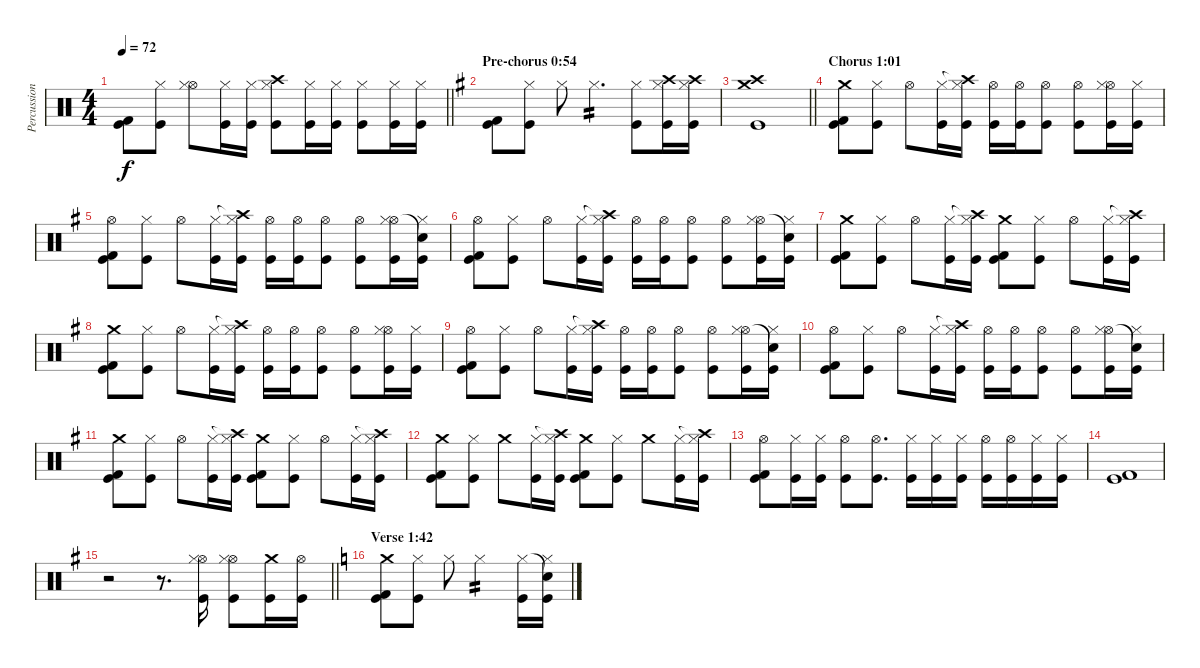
\track ("Percussion" "Percussion") {instrument percussion}
\staff {score}
\articulation defaults
\ts (4 4)
\tempo 72
\clef neutral
\barLineRight lightlight
\ks c
("Kick (hit) 2" "Kick (hit)").8{dy f} ("Hi-Hat (closed)" "Kick (hit)").8 ("Hi-Hat (open)" "Hi-Hat (closed)").8 ("Hi-Hat (closed)" "Kick (hit)").16 ("Hi-Hat (closed)" "Kick (hit)").16 ("Crash high (hit)" "Hi-Hat (closed)" "Kick (hit)").8 ("Hi-Hat (closed)" "Kick (hit)").16 ("Hi-Hat (closed)" "Kick (hit)").16 ("Hi-Hat (closed)" "Kick (hit)").8 ("Hi-Hat (closed)" "Kick (hit)").16 ("Hi-Hat (closed)" "Kick (hit)").16 |
\section ("" "Pre-chorus 0:54")
\ks g
("Kick (hit) 2" "Kick (hit)").8 ("Hi-Hat (closed)" "Kick (hit)").8 "Hi-Hat (closed)".8 "Hi-Hat (closed)".4{d tp 2} ("Hi-Hat (closed)" "Kick (hit)").8 ("Crash high (hit)" "Hi-Hat (closed)" "Kick (hit)").16 ("Crash high (hit)" "Hi-Hat (closed)" "Kick (hit)").16 |
\barLineRight lightlight
("Crash medium (hit)" "Crash high (hit)" "Kick (hit)").1 |
\section ("" "Chorus 1:01")
("Crash medium (hit)" "Kick (hit) 2" "Kick (hit)").8 ("Hi-Hat (closed)" "Kick (hit)").8 "Hi-Hat (open)".8 ("Hi-Hat (closed)" "Kick (hit)").16 ("Crash high (hit)"{t} "Hi-Hat (closed)" "Kick (hit)").16 ("Hi-Hat (open)" "Kick (hit)").16 ("Hi-Hat (open)" "Kick (hit)").16 ("Hi-Hat (open)" "Kick (hit)").8 ("Hi-Hat (open)" "Kick (hit)").8 ("Hi-Hat (open)" "Hi-Hat (closed)" "Kick (hit)").16 ("Hi-Hat (closed)" "Kick (hit)").16 |
("Hi-Hat (open)" "Kick (hit) 2" "Kick (hit)").8 ("Hi-Hat (closed)" "Kick (hit)").8 "Hi-Hat (open)".8 ("Hi-Hat (closed)" "Kick (hit)").16 ("Crash high (hit)"{t} "Hi-Hat (closed)" "Kick (hit)").16 ("Hi-Hat (open)" "Kick (hit)").16 ("Hi-Hat (open)" "Kick (hit)").16 ("Hi-Hat (open)" "Kick (hit)").8 ("Hi-Hat (open)" "Kick (hit)").8 ("Hi-Hat (open)" "Hi-Hat (closed)" "Kick (hit)").16 ("Snare (hit)"{t} "Hi-Hat (closed)" "Kick (hit)").16 |
("Hi-Hat (open)" "Kick (hit) 2" "Kick (hit)").8 ("Hi-Hat (closed)" "Kick (hit)").8 "Hi-Hat (open)".8 ("Hi-Hat (closed)" "Kick (hit)").16 ("Crash high (hit)"{t} "Hi-Hat (closed)" "Kick (hit)").16 ("Hi-Hat (open)" "Kick (hit)").16 ("Hi-Hat (open)" "Kick (hit)").16 ("Hi-Hat (open)" "Kick (hit)").8 ("Hi-Hat (open)" "Kick (hit)").8 ("Hi-Hat (open)" "Hi-Hat (closed)" "Kick (hit)").16 ("Snare (hit)"{t} "Hi-Hat (closed)" "Kick (hit)").16 |
("Crash medium (hit)" "Kick (hit) 2" "Kick (hit)").8 ("Hi-Hat (closed)" "Kick (hit)").8 "Hi-Hat (open)".8 ("Hi-Hat (closed)" "Kick (hit)").16 ("Crash high (hit)"{t} "Hi-Hat (closed)" "Kick (hit)").16 ("Crash medium (hit)" "Kick (hit) 2" "Kick (hit)").8 ("Hi-Hat (closed)" "Kick (hit)").8 "Hi-Hat (open)".8 ("Hi-Hat (closed)" "Kick (hit)").16 ("Crash high (hit)"{t} "Hi-Hat (closed)" "Kick (hit)").16 |
("Crash medium (hit)" "Kick (hit) 2" "Kick (hit)").8 ("Hi-Hat (closed)" "Kick (hit)").8 "Hi-Hat (open)".8 ("Hi-Hat (closed)" "Kick (hit)").16 ("Crash high (hit)"{t} "Hi-Hat (closed)" "Kick (hit)").16 ("Hi-Hat (open)" "Kick (hit)").16 ("Hi-Hat (open)" "Kick (hit)").16 ("Hi-Hat (open)" "Kick (hit)").8 ("Hi-Hat (open)" "Kick (hit)").8 ("Hi-Hat (open)" "Hi-Hat (closed)" "Kick (hit)").16 ("Hi-Hat (closed)" "Kick (hit)").16 |
("Hi-Hat (open)" "Kick (hit) 2" "Kick (hit)").8 ("Hi-Hat (closed)" "Kick (hit)").8 "Hi-Hat (open)".8 ("Hi-Hat (closed)" "Kick (hit)").16 ("Crash high (hit)"{t} "Hi-Hat (closed)" "Kick (hit)").16 ("Hi-Hat (open)" "Kick (hit)").16 ("Hi-Hat (open)" "Kick (hit)").16 ("Hi-Hat (open)" "Kick (hit)").8 ("Hi-Hat (open)" "Kick (hit)").8 ("Hi-Hat (open)" "Hi-Hat (closed)" "Kick (hit)").16 ("Snare (hit)"{t} "Hi-Hat (closed)" "Kick (hit)").16 |
("Hi-Hat (open)" "Kick (hit) 2" "Kick (hit)").8 ("Hi-Hat (closed)" "Kick (hit)").8 "Hi-Hat (open)".8 ("Hi-Hat (closed)" "Kick (hit)").16 ("Crash high (hit)"{t} "Hi-Hat (closed)" "Kick (hit)").16 ("Hi-Hat (open)" "Kick (hit)").16 ("Hi-Hat (open)" "Kick (hit)").16 ("Hi-Hat (open)" "Kick (hit)").8 ("Hi-Hat (open)" "Kick (hit)").8 ("Hi-Hat (open)" "Hi-Hat (closed)" "Kick (hit)").16 ("Snare (hit)"{t} "Hi-Hat (closed)" "Kick (hit)").16 |
("Crash medium (hit)" "Kick (hit) 2" "Kick (hit)").8 ("Hi-Hat (closed)" "Kick (hit)").8 "Hi-Hat (open)".8 ("Hi-Hat (closed)" "Kick (hit)").16 ("Crash high (hit)"{t} "Hi-Hat (closed)" "Kick (hit)").16 ("Crash medium (hit)" "Kick (hit) 2" "Kick (hit)").8 ("Hi-Hat (closed)" "Kick (hit)").8 "Hi-Hat (open)".8 ("Hi-Hat (closed)" "Kick (hit)").16 ("Crash high (hit)"{t} "Hi-Hat (closed)" "Kick (hit)").16 |
("Crash medium (hit)" "Kick (hit) 2" "Kick (hit)").8 ("Hi-Hat (closed)" "Kick (hit)").8 "Crash medium (hit)".8 ("Hi-Hat (closed)" "Kick (hit)").16 ("Crash high (hit)"{t} "Hi-Hat (closed)" "Kick (hit)").16 ("Crash medium (hit)" "Kick (hit) 2" "Kick (hit)").8 ("Hi-Hat (closed)" "Kick (hit)").8 "Crash medium (hit)".8 ("Hi-Hat (closed)" "Kick (hit)").16 ("Crash high (hit)"{t} "Hi-Hat (closed)" "Kick (hit)").16 |
("Hi-Hat (open)" "Kick (hit) 2" "Kick (hit)").8 ("Hi-Hat (closed)" "Kick (hit)").16 ("Hi-Hat (closed)" "Kick (hit)").16 ("Hi-Hat (open)" "Kick (hit)").8 ("Hi-Hat (open)" "Kick (hit)").8{d} ("Hi-Hat (closed)" "Kick (hit)").16 ("Hi-Hat (closed)" "Kick (hit)").16 ("Hi-Hat (closed)" "Kick (hit)").16 ("Hi-Hat (open)" "Kick (hit)").16 ("Hi-Hat (open)" "Kick (hit)").16 ("Hi-Hat (closed)" "Kick (hit)").16 ("Hi-Hat (closed)" "Kick (hit)").16 |
("Kick (hit) 2" "Kick (hit)").1 |
\barLineRight lightlight
r.2 r.8{d} ("Hi-Hat (open)" "Hi-Hat (closed)" "Kick (hit)").16 ("Hi-Hat (open)" "Hi-Hat (closed)" "Kick (hit)").8 ("Crash medium (hit)" "Kick (hit)").16 ("Hi-Hat (open)" "Kick (hit)").16 |
\section ("" "Verse 1:42")
\ks c
("Crash medium (hit)" "Kick (hit) 2" "Kick (hit)").8 ("Hi-Hat (closed)" "Kick (hit)").8 "Hi-Hat (closed)".8 "Hi-Hat (closed)".2{tp 2} ("Hi-Hat (closed)" "Kick (hit)").16 ("Snare (hit)"{t} "Hi-Hat (closed)" "Kick (hit)").16
